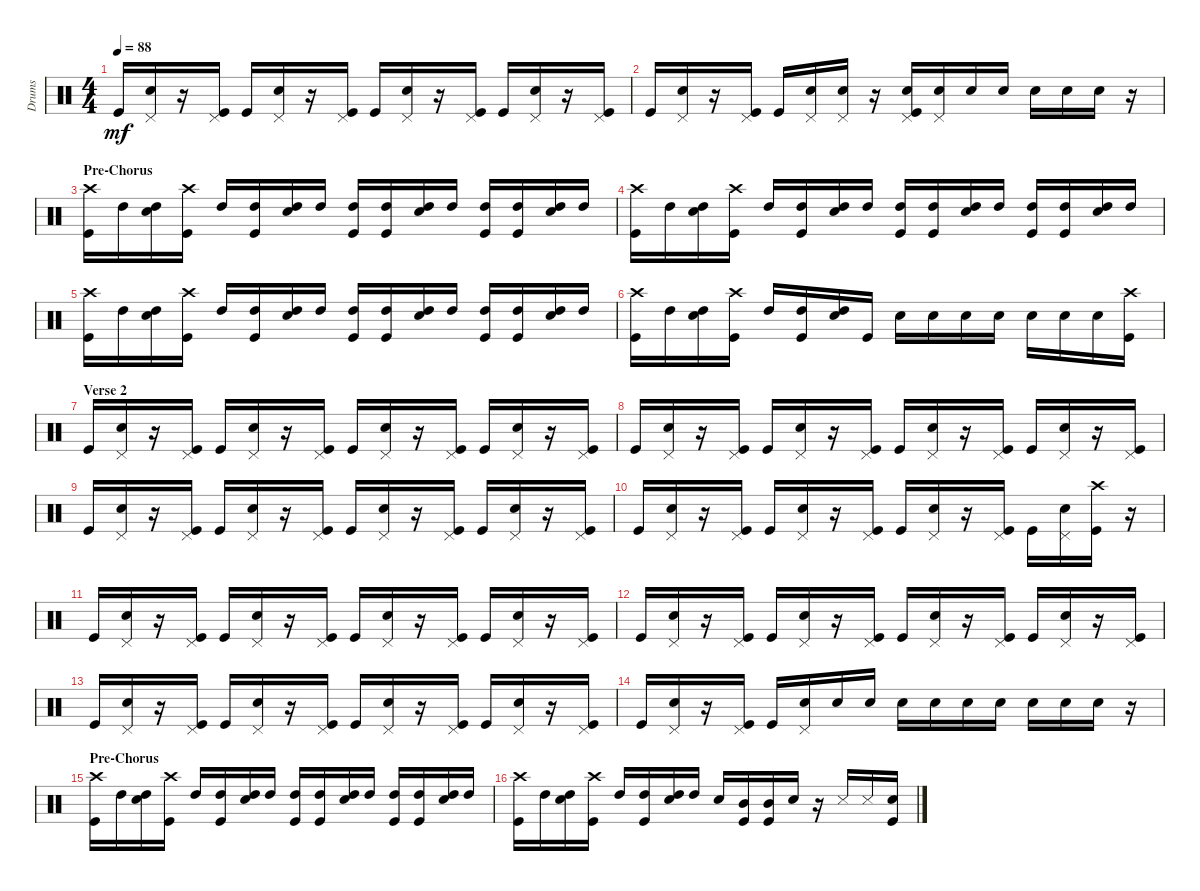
\track ("Drums" "Drums") {instrument percussion}
\staff {score}
\articulation defaults
\ts (4 4)
\tempo 88
\clef neutral
\ks c "Kick (hit)".16{dy mf}
("Snare (hit) 2" "Pedal Hi-Hat (hit)").16 r.16 ("Kick (hit)" "Pedal Hi-Hat (hit)").16 "Kick (hit)".16 ("Snare (hit) 2" "Pedal Hi-Hat (hit)").16 r.16 ("Pedal Hi-Hat (hit)" "Kick (hit)").16 "Kick (hit)".16 ("Snare (hit) 2" "Pedal Hi-Hat (hit)").16 r.16 ("Kick (hit)" "Pedal Hi-Hat (hit)").16 "Kick (hit)".16 ("Snare (hit) 2" "Pedal Hi-Hat (hit)").16 r.16 ("Kick (hit)" "Pedal Hi-Hat (hit)").16 |
"Kick (hit)".16 ("Snare (hit) 2" "Pedal Hi-Hat (hit)").16 r.16 ("Kick (hit)" "Pedal Hi-Hat (hit)").16 "Kick (hit)".16 ("Snare (hit) 2" "Pedal Hi-Hat (hit)").16 ("Snare (hit) 2" "Pedal Hi-Hat (hit)").16 r.16 ("Kick (hit)" "Snare (hit) 2" "Pedal Hi-Hat (hit)").16 ("Snare (hit) 2" "Pedal Hi-Hat (hit)").16 "Snare (hit) 2".16 "Snare (hit) 2".16 "Snare (hit) 2".16 "Snare (hit) 2".16 "Snare (hit) 2".16 r.16 |
\section ("" "Pre-Chorus")
("Kick (hit)" "Crash high (hit)").16 "High Tom (hit)".16 ("High Tom (hit)" "Snare (hit) 2").16 ("Kick (hit)" "Crash high (hit)").16 "High Tom (hit)".16 ("High Tom (hit)" "Kick (hit)").16 ("High Tom (hit)" "Snare (hit) 2").16 "High Tom (hit)".16 ("Kick (hit)" "High Tom (hit)").16 ("High Tom (hit)" "Kick (hit)").16 ("High Tom (hit)" "Snare (hit) 2").16 "High Tom (hit)".16 ("Kick (hit)" "High Tom (hit)").16 ("High Tom (hit)" "Kick (hit)").16 ("High Tom (hit)" "Snare (hit) 2").16 "High Tom (hit)".16 |
("Kick (hit)" "Crash high (hit)").16 "High Tom (hit)".16 ("High Tom (hit)" "Snare (hit) 2").16 ("Kick (hit)" "Crash high (hit)").16 "High Tom (hit)".16 ("High Tom (hit)" "Kick (hit)").16 ("High Tom (hit)" "Snare (hit) 2").16 "High Tom (hit)".16 ("Kick (hit)" "High Tom (hit)").16 ("High Tom (hit)" "Kick (hit)").16 ("High Tom (hit)" "Snare (hit) 2").16 "High Tom (hit)".16 ("Kick (hit)" "High Tom (hit)").16 ("High Tom (hit)" "Kick (hit)").16 ("High Tom (hit)" "Snare (hit) 2").16 "High Tom (hit)".16 |
("Kick (hit)" "Crash high (hit)").16 "High Tom (hit)".16 ("High Tom (hit)" "Snare (hit) 2").16 ("Kick (hit)" "Crash high (hit)").16 "High Tom (hit)".16 ("High Tom (hit)" "Kick (hit)").16 ("High Tom (hit)" "Snare (hit) 2").16 "High Tom (hit)".16 ("Kick (hit)" "High Tom (hit)").16 ("High Tom (hit)" "Kick (hit)").16 ("High Tom (hit)" "Snare (hit) 2").16 "High Tom (hit)".16 ("Kick (hit)" "High Tom (hit)").16 ("High Tom (hit)" "Kick (hit)").16 ("High Tom (hit)" "Snare (hit) 2").16 "High Tom (hit)".16 |
("Kick (hit)" "Crash high (hit)").16 "High Tom (hit)".16 ("High Tom (hit)" "Snare (hit) 2").16 ("Kick (hit)" "Crash high (hit)").16 "High Tom (hit)".16 ("High Tom (hit)" "Kick (hit)").16 ("High Tom (hit)" "Snare (hit) 2").16 "Kick (hit)".16 "Snare (hit) 2".16 "Snare (hit) 2".16 "Snare (hit) 2".16 "Snare (hit) 2".16 "Snare (hit) 2".16 "Snare (hit) 2".16 "Snare (hit) 2".16 ("Kick (hit)" "Crash high (hit)").16 |
\section ("" "Verse 2")
"Kick (hit)".16 ("Snare (hit) 2" "Pedal Hi-Hat (hit)").16 r.16 ("Kick (hit)" "Pedal Hi-Hat (hit)").16 "Kick (hit)".16 ("Snare (hit) 2" "Pedal Hi-Hat (hit)").16 r.16 ("Pedal Hi-Hat (hit)" "Kick (hit)").16 "Kick (hit)".16 ("Snare (hit) 2" "Pedal Hi-Hat (hit)").16 r.16 ("Kick (hit)" "Pedal Hi-Hat (hit)").16 "Kick (hit)".16 ("Snare (hit) 2" "Pedal Hi-Hat (hit)").16 r.16 ("Kick (hit)" "Pedal Hi-Hat (hit)").16 |
"Kick (hit)".16 ("Snare (hit) 2" "Pedal Hi-Hat (hit)").16 r.16 ("Kick (hit)" "Pedal Hi-Hat (hit)").16 "Kick (hit)".16 ("Snare (hit) 2" "Pedal Hi-Hat (hit)").16 r.16 ("Pedal Hi-Hat (hit)" "Kick (hit)").16 "Kick (hit)".16 ("Snare (hit) 2" "Pedal Hi-Hat (hit)").16 r.16 ("Kick (hit)" "Pedal Hi-Hat (hit)").16 "Kick (hit)".16 ("Snare (hit) 2" "Pedal Hi-Hat (hit)").16 r.16 ("Kick (hit)" "Pedal Hi-Hat (hit)").16 |
"Kick (hit)".16 ("Snare (hit) 2" "Pedal Hi-Hat (hit)").16 r.16 ("Kick (hit)" "Pedal Hi-Hat (hit)").16 "Kick (hit)".16 ("Snare (hit) 2" "Pedal Hi-Hat (hit)").16 r.16 ("Pedal Hi-Hat (hit)" "Kick (hit)").16 "Kick (hit)".16 ("Snare (hit) 2" "Pedal Hi-Hat (hit)").16 r.16 ("Kick (hit)" "Pedal Hi-Hat (hit)").16 "Kick (hit)".16 ("Snare (hit) 2" "Pedal Hi-Hat (hit)").16 r.16 ("Kick (hit)" "Pedal Hi-Hat (hit)").16 |
"Kick (hit)".16 ("Snare (hit) 2" "Pedal Hi-Hat (hit)").16 r.16 ("Kick (hit)" "Pedal Hi-Hat (hit)").16 "Kick (hit)".16 ("Snare (hit) 2" "Pedal Hi-Hat (hit)").16 r.16 ("Pedal Hi-Hat (hit)" "Kick (hit)").16 "Kick (hit)".16 ("Snare (hit) 2" "Pedal Hi-Hat (hit)").16 r.16 ("Kick (hit)" "Pedal Hi-Hat (hit)").16 "Kick (hit)".16 ("Snare (hit) 2" "Pedal Hi-Hat (hit)").16 ("Kick (hit)" "Crash high (hit)").16 r.16 |
"Kick (hit)".16 ("Snare (hit) 2" "Pedal Hi-Hat (hit)").16 r.16 ("Kick (hit)" "Pedal Hi-Hat (hit)").16 "Kick (hit)".16 ("Snare (hit) 2" "Pedal Hi-Hat (hit)").16 r.16 ("Pedal Hi-Hat (hit)" "Kick (hit)").16 "Kick (hit)".16 ("Snare (hit) 2" "Pedal Hi-Hat (hit)").16 r.16 ("Kick (hit)" "Pedal Hi-Hat (hit)").16 "Kick (hit)".16 ("Snare (hit) 2" "Pedal Hi-Hat (hit)").16 r.16 ("Kick (hit)" "Pedal Hi-Hat (hit)").16 |
"Kick (hit)".16 ("Snare (hit) 2" "Pedal Hi-Hat (hit)").16 r.16 ("Kick (hit)" "Pedal Hi-Hat (hit)").16 "Kick (hit)".16 ("Snare (hit) 2" "Pedal Hi-Hat (hit)").16 r.16 ("Pedal Hi-Hat (hit)" "Kick (hit)").16 "Kick (hit)".16 ("Snare (hit) 2" "Pedal Hi-Hat (hit)").16 r.16 ("Kick (hit)" "Pedal Hi-Hat (hit)").16 "Kick (hit)".16 ("Snare (hit) 2" "Pedal Hi-Hat (hit)").16 r.16 ("Kick (hit)" "Pedal Hi-Hat (hit)").16 |
"Kick (hit)".16 ("Snare (hit) 2" "Pedal Hi-Hat (hit)").16 r.16 ("Kick (hit)" "Pedal Hi-Hat (hit)").16 "Kick (hit)".16 ("Snare (hit) 2" "Pedal Hi-Hat (hit)").16 r.16 ("Pedal Hi-Hat (hit)" "Kick (hit)").16 "Kick (hit)".16 ("Snare (hit) 2" "Pedal Hi-Hat (hit)").16 r.16 ("Kick (hit)" "Pedal Hi-Hat (hit)").16 "Kick (hit)".16 ("Snare (hit) 2" "Pedal Hi-Hat (hit)").16 r.16 ("Kick (hit)" "Pedal Hi-Hat (hit)").16 |
"Kick (hit)".16 ("Snare (hit) 2" "Pedal Hi-Hat (hit)").16 r.16 ("Kick (hit)" "Pedal Hi-Hat (hit)").16 "Kick (hit)".16 ("Snare (hit) 2" "Pedal Hi-Hat (hit)").16 "Snare (hit) 2".16 "Snare (hit) 2".16 "Snare (hit) 2".16 "Snare (hit) 2".16 "Snare (hit) 2".16 "Snare (hit) 2".16 "Snare (hit) 2".16 "Snare (hit) 2".16 "Snare (hit) 2".16 r.16 |
\section ("" "Pre-Chorus")
("Kick (hit)" "Crash high (hit)").16 "High Tom (hit)".16 ("High Tom (hit)" "Snare (hit) 2").16 ("Kick (hit)" "Crash high (hit)").16 "High Tom (hit)".16 ("High Tom (hit)" "Kick (hit)").16 ("High Tom (hit)" "Snare (hit) 2").16 "High Tom (hit)".16 ("Kick (hit)" "High Tom (hit)").16 ("High Tom (hit)" "Kick (hit)").16 ("High Tom (hit)" "Snare (hit) 2").16 "High Tom (hit)".16 ("Kick (hit)" "High Tom (hit)").16 ("High Tom (hit)" "Kick (hit)").16 ("High Tom (hit)" "Snare (hit) 2").16 "High Tom (hit)".16 |
("Kick (hit)" "Crash high (hit)").16 "High Tom (hit)".16 ("High Tom (hit)" "Snare (hit) 2").16 ("Kick (hit)" "Crash high (hit)").16 "High Tom (hit)".16 ("High Tom (hit)" "Kick (hit)").16 ("High Tom (hit)" "Snare (hit) 2").16 "High Tom (hit)".16 "Snare (hit) 2".16 ("Kick (hit)" "Mid Tom (hit)").16 ("Kick (hit)" "Mid Tom (hit)").16 "Snare (hit) 2".16 r.16 "Snare (side stick) 3".16 "Snare (side stick) 3".16 ("Snare (hit) 2" "Kick (hit)").16
